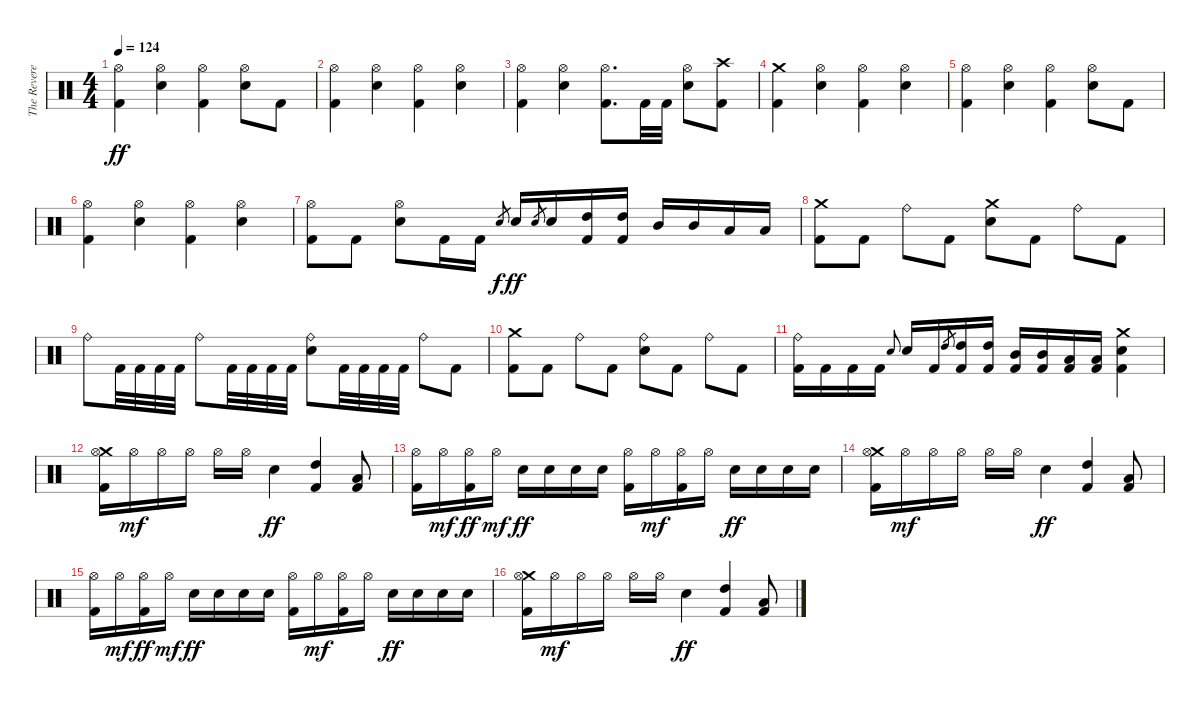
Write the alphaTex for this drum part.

\track ("The Reverend" "The Revere") {instrument percussion}
\staff {score}
\articulation defaults
\ts (4 4)
\tempo 124
\clef neutral
\ks c
("Hi-Hat (open)" "Kick (hit) 2").4{dy ff} ("Hi-Hat (open)" "Electric Snare (hit)").4 ("Hi-Hat (open)" "Kick (hit) 2").4 ("Hi-Hat (open)" "Electric Snare (hit)").8 "Kick (hit) 2".8 |
("Hi-Hat (open)" "Kick (hit) 2").4 ("Hi-Hat (open)" "Electric Snare (hit)").4 ("Hi-Hat (open)" "Kick (hit) 2").4 ("Hi-Hat (open)" "Electric Snare (hit)").4 |
("Hi-Hat (open)" "Kick (hit) 2").4 ("Hi-Hat (open)" "Electric Snare (hit)").4 ("Hi-Hat (open)" "Kick (hit) 2").8{d} "Kick (hit) 2".32 "Kick (hit) 2".32 ("Hi-Hat (open)" "Electric Snare (hit)").8 ("Crash high (hit)" "Kick (hit) 2").8 |
("Crash medium (hit)" "Kick (hit) 2").4 ("Hi-Hat (open)" "Electric Snare (hit)").4 ("Hi-Hat (open)" "Kick (hit) 2").4 ("Hi-Hat (open)" "Electric Snare (hit)").4 |
("Hi-Hat (open)" "Kick (hit) 2").4 ("Hi-Hat (open)" "Electric Snare (hit)").4 ("Hi-Hat (open)" "Kick (hit) 2").4 ("Hi-Hat (open)" "Electric Snare (hit)").8 "Kick (hit) 2".8 |
("Hi-Hat (open)" "Kick (hit) 2").4 ("Hi-Hat (open)" "Electric Snare (hit)").4 ("Hi-Hat (open)" "Kick (hit) 2").4 ("Hi-Hat (open)" "Electric Snare (hit)").4 |
("Hi-Hat (open)" "Kick (hit) 2").8 "Kick (hit) 2".8 ("Hi-Hat (open)" "Electric Snare (hit)").8 "Kick (hit) 2".16 "Kick (hit) 2".16 "Electric Snare (hit)".8{gr dy f} "Electric Snare (hit)".16{dy ff} "Electric Snare (hit)".8{gr} "Electric Snare (hit)".16 ("High Tom (hit)" "Kick (hit) 2").16 ("High Tom (hit)" "Kick (hit) 2").16 "Mid Tom (hit)".16 "Mid Tom (hit)".16 "Low Tom (hit)".16 "Low Tom (hit)".16 |
("Crash medium (hit)" "Kick (hit) 2").8 "Kick (hit) 2".8 "Ride (bell)".8 "Kick (hit) 2".8 ("Crash medium (hit)" "Electric Snare (hit)").8 "Kick (hit) 2".8 "Ride (bell)".8 "Kick (hit) 2".8 |
"Ride (bell)".8 "Kick (hit) 2".32 "Kick (hit) 2".32 "Kick (hit) 2".32 "Kick (hit) 2".32 "Ride (bell)".8 "Kick (hit) 2".32 "Kick (hit) 2".32 "Kick (hit) 2".32 "Kick (hit) 2".32 ("Ride (bell)" "Electric Snare (hit)").8 "Kick (hit) 2".32 "Kick (hit) 2".32 "Kick (hit) 2".32 "Kick (hit) 2".32 "Ride (bell)".8 "Kick (hit) 2".8 |
("Crash medium (hit)" "Kick (hit) 2").8 "Kick (hit) 2".8 "Ride (bell)".8 "Kick (hit) 2".8 ("Ride (bell)" "Electric Snare (hit)").8 "Kick (hit) 2".8 "Ride (bell)".8 "Kick (hit) 2".8 |
("Ride (bell)" "Kick (hit) 2").16 "Kick (hit) 2".16 "Kick (hit) 2".16 "Kick (hit) 2".16 "Electric Snare (hit)".8{gr onbeat} "Electric Snare (hit)".16 "Kick (hit) 2".16 "High Tom (hit)".8{gr} ("High Tom (hit)" "Kick (hit) 2").16 ("High Tom (hit)" "Kick (hit) 2").16 ("Mid Tom (hit)" "Kick (hit) 2").16 ("Mid Tom (hit)" "Kick (hit) 2").16 ("Low Tom (hit)" "Kick (hit) 2").16 ("Low Tom (hit)" "Kick (hit) 2").16 ("Crash medium (hit)" "Electric Snare (hit)" "Kick (hit) 2").4 |
("Crash medium (hit)" "Hi-Hat (open)" "Kick (hit) 2").16 "Hi-Hat (open)".16{dy mf} "Hi-Hat (open)".16 "Hi-Hat (open)".16 "Hi-Hat (open)".16 "Hi-Hat (open)".16 "Electric Snare (hit)".4{dy ff} ("High Tom (hit)" "Kick (hit) 2").4 ("Low Tom (hit)" "Kick (hit) 2").8 |
("Hi-Hat (open)" "Kick (hit) 2").16 "Hi-Hat (open)".16{dy mf} ("Hi-Hat (open)" "Kick (hit) 2").16{dy ff} "Hi-Hat (open)".16{dy mf} "Electric Snare (hit)".16{dy ff} "Electric Snare (hit)".16 "Electric Snare (hit)".16 "Electric Snare (hit)".16 ("Hi-Hat (open)" "Kick (hit) 2").16 "Hi-Hat (open)".16{dy mf} ("Hi-Hat (open)" "Kick (hit) 2").16 "Hi-Hat (open)".16 "Electric Snare (hit)".16{dy ff} "Electric Snare (hit)".16 "Electric Snare (hit)".16 "Electric Snare (hit)".16 |
("Crash medium (hit)" "Hi-Hat (open)" "Kick (hit) 2").16 "Hi-Hat (open)".16{dy mf} "Hi-Hat (open)".16 "Hi-Hat (open)".16 "Hi-Hat (open)".16 "Hi-Hat (open)".16 "Electric Snare (hit)".4{dy ff} ("High Tom (hit)" "Kick (hit) 2").4 ("Low Tom (hit)" "Kick (hit) 2").8 |
("Hi-Hat (open)" "Kick (hit) 2").16 "Hi-Hat (open)".16{dy mf} ("Hi-Hat (open)" "Kick (hit) 2").16{dy ff} "Hi-Hat (open)".16{dy mf} "Electric Snare (hit)".16{dy ff} "Electric Snare (hit)".16 "Electric Snare (hit)".16 "Electric Snare (hit)".16 ("Hi-Hat (open)" "Kick (hit) 2").16 "Hi-Hat (open)".16{dy mf} ("Hi-Hat (open)" "Kick (hit) 2").16 "Hi-Hat (open)".16 "Electric Snare (hit)".16{dy ff} "Electric Snare (hit)".16 "Electric Snare (hit)".16 "Electric Snare (hit)".16 |
("Crash medium (hit)" "Hi-Hat (open)" "Kick (hit) 2").16 "Hi-Hat (open)".16{dy mf} "Hi-Hat (open)".16 "Hi-Hat (open)".16 "Hi-Hat (open)".16 "Hi-Hat (open)".16 "Electric Snare (hit)".4{dy ff} ("High Tom (hit)" "Kick (hit) 2").4 ("Low Tom (hit)" "Kick (hit) 2").8
